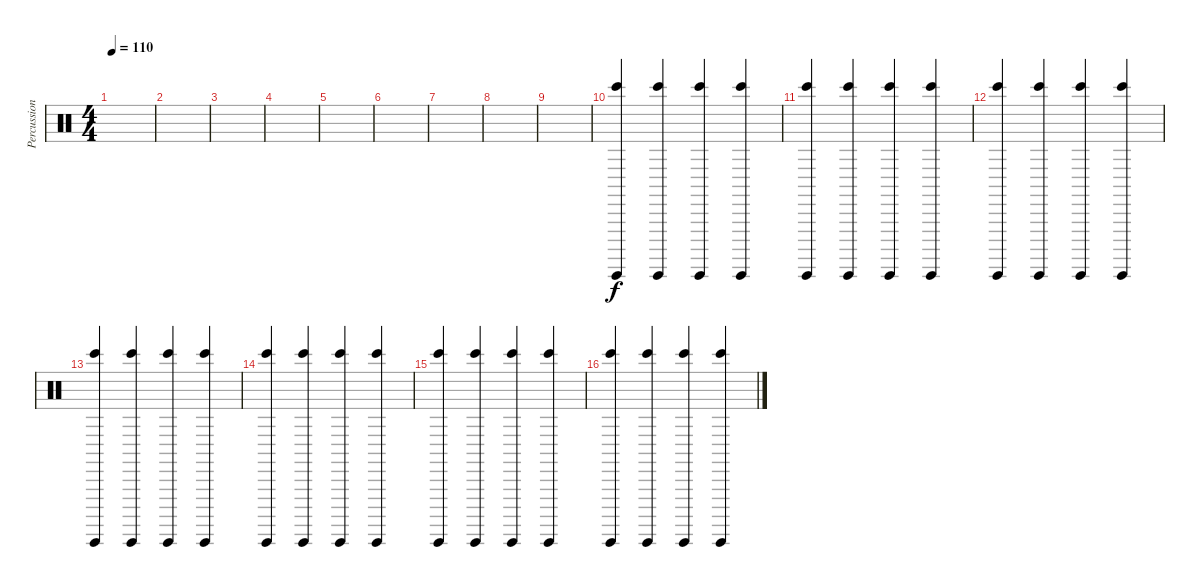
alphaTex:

\track ("Percussion" "Percussion") {instrument percussion}
\staff {score}
\articulation defaults
\ts (4 4)
\tempo 110
\clef neutral
\ks c
|
|
|
|
|
|
|
|
|
("Bongo High (hit)" "Guiro (hit)").4 ("Bongo High (hit)" "Guiro (hit)").4 ("Bongo High (hit)" "Guiro (hit)").4 ("Bongo High (hit)" "Guiro (hit)").4 |
("Bongo High (hit)" "Guiro (hit)").4 ("Bongo High (hit)" "Guiro (hit)").4 ("Bongo High (hit)" "Guiro (hit)").4 ("Bongo High (hit)" "Guiro (hit)").4 |
("Bongo High (hit)" "Guiro (hit)").4 ("Bongo High (hit)" "Guiro (hit)").4 ("Bongo High (hit)" "Guiro (hit)").4 ("Bongo High (hit)" "Guiro (hit)").4 |
("Bongo High (hit)" "Guiro (hit)").4 ("Bongo High (hit)" "Guiro (hit)").4 ("Bongo High (hit)" "Guiro (hit)").4 ("Bongo High (hit)" "Guiro (hit)").4 |
("Bongo High (hit)" "Guiro (hit)").4 ("Bongo High (hit)" "Guiro (hit)").4 ("Bongo High (hit)" "Guiro (hit)").4 ("Bongo High (hit)" "Guiro (hit)").4 |
("Bongo High (hit)" "Guiro (hit)").4 ("Bongo High (hit)" "Guiro (hit)").4 ("Bongo High (hit)" "Guiro (hit)").4 ("Bongo High (hit)" "Guiro (hit)").4 |
("Bongo High (hit)" "Guiro (hit)").4 ("Bongo High (hit)" "Guiro (hit)").4 ("Bongo High (hit)" "Guiro (hit)").4 ("Bongo High (hit)" "Guiro (hit)").4
